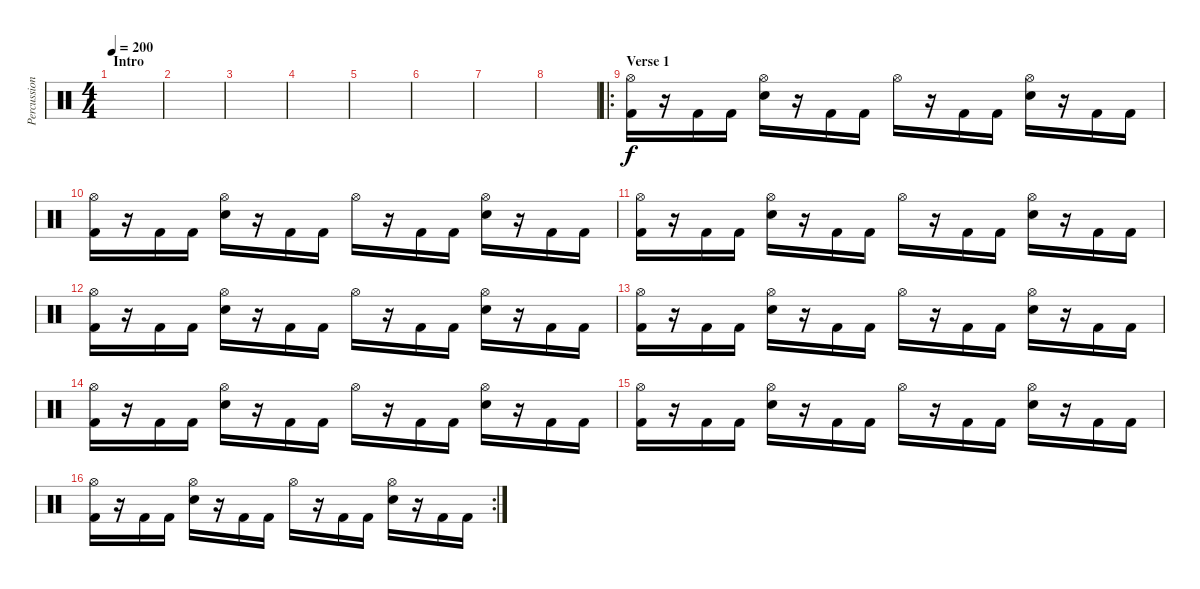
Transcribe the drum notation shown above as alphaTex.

\track ("Percussion" "Percussion") {instrument percussion}
\staff {score}
\articulation defaults
\ts (4 4)
\section ("" "Intro")
\tempo 200
\clef neutral
\ks c
|
|
|
|
|
|
|
|
\ro
\section ("" "Verse 1")
("Hi-Hat (open)" "Kick (hit) 2").16 r.16 "Kick (hit) 2".16 "Kick (hit) 2".16 ("Hi-Hat (open)" "Electric Snare (hit)").16 r.16 "Kick (hit) 2".16 "Kick (hit) 2".16 "Hi-Hat (open)".16 r.16 "Kick (hit) 2".16 "Kick (hit) 2".16 ("Hi-Hat (open)" "Electric Snare (hit)").16 r.16 "Kick (hit) 2".16 "Kick (hit) 2".16 |
("Hi-Hat (open)" "Kick (hit) 2").16 r.16 "Kick (hit) 2".16 "Kick (hit) 2".16 ("Hi-Hat (open)" "Electric Snare (hit)").16 r.16 "Kick (hit) 2".16 "Kick (hit) 2".16 "Hi-Hat (open)".16 r.16 "Kick (hit) 2".16 "Kick (hit) 2".16 ("Hi-Hat (open)" "Electric Snare (hit)").16 r.16 "Kick (hit) 2".16 "Kick (hit) 2".16 |
("Hi-Hat (open)" "Kick (hit) 2").16 r.16 "Kick (hit) 2".16 "Kick (hit) 2".16 ("Hi-Hat (open)" "Electric Snare (hit)").16 r.16 "Kick (hit) 2".16 "Kick (hit) 2".16 "Hi-Hat (open)".16 r.16 "Kick (hit) 2".16 "Kick (hit) 2".16 ("Hi-Hat (open)" "Electric Snare (hit)").16 r.16 "Kick (hit) 2".16 "Kick (hit) 2".16 |
("Hi-Hat (open)" "Kick (hit) 2").16 r.16 "Kick (hit) 2".16 "Kick (hit) 2".16 ("Hi-Hat (open)" "Electric Snare (hit)").16 r.16 "Kick (hit) 2".16 "Kick (hit) 2".16 "Hi-Hat (open)".16 r.16 "Kick (hit) 2".16 "Kick (hit) 2".16 ("Hi-Hat (open)" "Electric Snare (hit)").16 r.16 "Kick (hit) 2".16 "Kick (hit) 2".16 |
("Hi-Hat (open)" "Kick (hit) 2").16 r.16 "Kick (hit) 2".16 "Kick (hit) 2".16 ("Hi-Hat (open)" "Electric Snare (hit)").16 r.16 "Kick (hit) 2".16 "Kick (hit) 2".16 "Hi-Hat (open)".16 r.16 "Kick (hit) 2".16 "Kick (hit) 2".16 ("Hi-Hat (open)" "Electric Snare (hit)").16 r.16 "Kick (hit) 2".16 "Kick (hit) 2".16 |
("Hi-Hat (open)" "Kick (hit) 2").16 r.16 "Kick (hit) 2".16 "Kick (hit) 2".16 ("Hi-Hat (open)" "Electric Snare (hit)").16 r.16 "Kick (hit) 2".16 "Kick (hit) 2".16 "Hi-Hat (open)".16 r.16 "Kick (hit) 2".16 "Kick (hit) 2".16 ("Hi-Hat (open)" "Electric Snare (hit)").16 r.16 "Kick (hit) 2".16 "Kick (hit) 2".16 |
("Hi-Hat (open)" "Kick (hit) 2").16 r.16 "Kick (hit) 2".16 "Kick (hit) 2".16 ("Hi-Hat (open)" "Electric Snare (hit)").16 r.16 "Kick (hit) 2".16 "Kick (hit) 2".16 "Hi-Hat (open)".16 r.16 "Kick (hit) 2".16 "Kick (hit) 2".16 ("Hi-Hat (open)" "Electric Snare (hit)").16 r.16 "Kick (hit) 2".16 "Kick (hit) 2".16 |
\rc 2
("Hi-Hat (open)" "Kick (hit) 2").16 r.16 "Kick (hit) 2".16 "Kick (hit) 2".16 ("Hi-Hat (open)" "Electric Snare (hit)").16 r.16 "Kick (hit) 2".16 "Kick (hit) 2".16 "Hi-Hat (open)".16 r.16 "Kick (hit) 2".16 "Kick (hit) 2".16 ("Hi-Hat (open)" "Electric Snare (hit)").16 r.16 "Kick (hit) 2".16 "Kick (hit) 2".16
